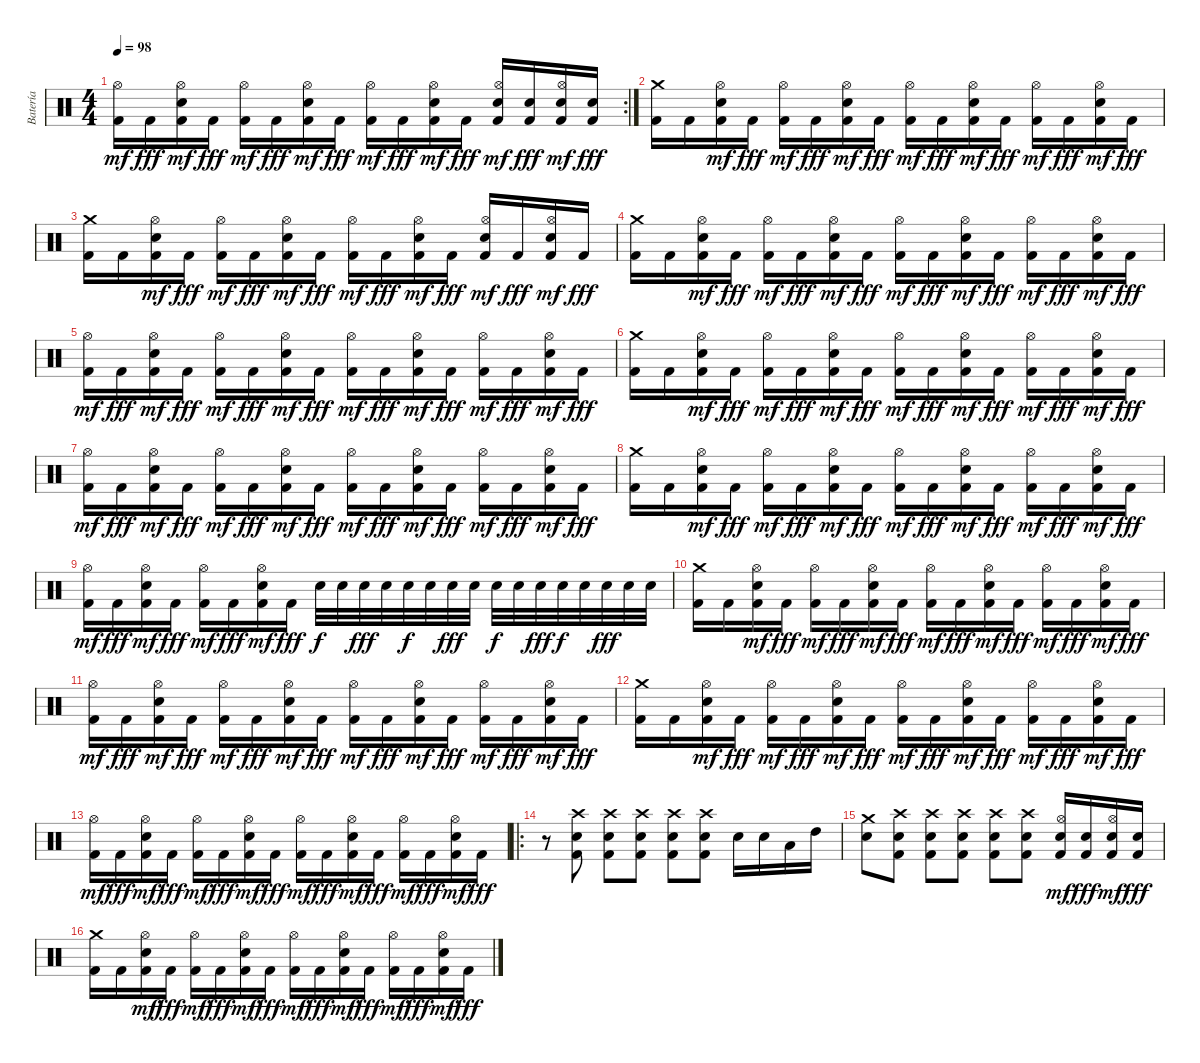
\track ("Batería" "Batería") {instrument percussion}
\staff {score}
\articulation defaults
\rc 2
\ts (4 4)
\tempo 98
\clef neutral
\ks c
("Kick (hit) 2" "Hi-Hat (open)").16{dy mf} "Kick (hit) 2".16{dy fff} ("Kick (hit) 2" "Electric Snare (hit)" "Hi-Hat (open)").16{dy mf} "Kick (hit) 2".16{dy fff} ("Kick (hit) 2" "Hi-Hat (open)").16{dy mf} "Kick (hit) 2".16{dy fff} ("Kick (hit) 2" "Electric Snare (hit)" "Hi-Hat (open)").16{dy mf} "Kick (hit) 2".16{dy fff} ("Kick (hit) 2" "Hi-Hat (open)").16{dy mf} "Kick (hit) 2".16{dy fff} ("Kick (hit) 2" "Electric Snare (hit)" "Hi-Hat (open)").16{dy mf} "Kick (hit) 2".16{dy fff} ("Kick (hit) 2" "Electric Snare (hit)" "Hi-Hat (open)").16{dy mf} ("Kick (hit) 2" "Electric Snare (hit)").16{dy fff} ("Kick (hit) 2" "Electric Snare (hit)" "Hi-Hat (open)").16{dy mf} ("Kick (hit) 2" "Electric Snare (hit)").16{dy fff} |
("Kick (hit) 2" "Crash medium (hit)").16 "Kick (hit) 2".16 ("Kick (hit) 2" "Electric Snare (hit)" "Hi-Hat (open)").16{dy mf} "Kick (hit) 2".16{dy fff} ("Kick (hit) 2" "Hi-Hat (open)").16{dy mf} "Kick (hit) 2".16{dy fff} ("Kick (hit) 2" "Electric Snare (hit)" "Hi-Hat (open)").16{dy mf} "Kick (hit) 2".16{dy fff} ("Kick (hit) 2" "Hi-Hat (open)").16{dy mf} "Kick (hit) 2".16{dy fff} ("Kick (hit) 2" "Electric Snare (hit)" "Hi-Hat (open)").16{dy mf} "Kick (hit) 2".16{dy fff} ("Kick (hit) 2" "Hi-Hat (open)").16{dy mf} "Kick (hit) 2".16{dy fff} ("Kick (hit) 2" "Electric Snare (hit)" "Hi-Hat (open)").16{dy mf} "Kick (hit) 2".16{dy fff} |
("Kick (hit) 2" "Crash medium (hit)").16 "Kick (hit) 2".16 ("Kick (hit) 2" "Electric Snare (hit)" "Hi-Hat (open)").16{dy mf} "Kick (hit) 2".16{dy fff} ("Kick (hit) 2" "Hi-Hat (open)").16{dy mf} "Kick (hit) 2".16{dy fff} ("Kick (hit) 2" "Electric Snare (hit)" "Hi-Hat (open)").16{dy mf} "Kick (hit) 2".16{dy fff} ("Kick (hit) 2" "Hi-Hat (open)").16{dy mf} "Kick (hit) 2".16{dy fff} ("Kick (hit) 2" "Electric Snare (hit)" "Hi-Hat (open)").16{dy mf} "Kick (hit) 2".16{dy fff} ("Kick (hit) 2" "Electric Snare (hit)" "Hi-Hat (open)").16{dy mf} "Kick (hit) 2".16{dy fff} ("Kick (hit) 2" "Electric Snare (hit)" "Hi-Hat (open)").16{dy mf} "Kick (hit) 2".16{dy fff} |
("Kick (hit) 2" "Crash medium (hit)").16 "Kick (hit) 2".16 ("Kick (hit) 2" "Electric Snare (hit)" "Hi-Hat (open)").16{dy mf} "Kick (hit) 2".16{dy fff} ("Kick (hit) 2" "Hi-Hat (open)").16{dy mf} "Kick (hit) 2".16{dy fff} ("Kick (hit) 2" "Electric Snare (hit)" "Hi-Hat (open)").16{dy mf} "Kick (hit) 2".16{dy fff} ("Kick (hit) 2" "Hi-Hat (open)").16{dy mf} "Kick (hit) 2".16{dy fff} ("Kick (hit) 2" "Electric Snare (hit)" "Hi-Hat (open)").16{dy mf} "Kick (hit) 2".16{dy fff} ("Kick (hit) 2" "Hi-Hat (open)").16{dy mf} "Kick (hit) 2".16{dy fff} ("Kick (hit) 2" "Electric Snare (hit)" "Hi-Hat (open)").16{dy mf} "Kick (hit) 2".16{dy fff} |
("Kick (hit) 2" "Hi-Hat (open)").16{dy mf} "Kick (hit) 2".16{dy fff} ("Kick (hit) 2" "Electric Snare (hit)" "Hi-Hat (open)").16{dy mf} "Kick (hit) 2".16{dy fff} ("Kick (hit) 2" "Hi-Hat (open)").16{dy mf} "Kick (hit) 2".16{dy fff} ("Kick (hit) 2" "Electric Snare (hit)" "Hi-Hat (open)").16{dy mf} "Kick (hit) 2".16{dy fff} ("Kick (hit) 2" "Hi-Hat (open)").16{dy mf} "Kick (hit) 2".16{dy fff} ("Kick (hit) 2" "Electric Snare (hit)" "Hi-Hat (open)").16{dy mf} "Kick (hit) 2".16{dy fff} ("Kick (hit) 2" "Hi-Hat (open)").16{dy mf} "Kick (hit) 2".16{dy fff} ("Kick (hit) 2" "Electric Snare (hit)" "Hi-Hat (open)").16{dy mf} "Kick (hit) 2".16{dy fff} |
("Kick (hit) 2" "Crash medium (hit)").16 "Kick (hit) 2".16 ("Kick (hit) 2" "Electric Snare (hit)" "Hi-Hat (open)").16{dy mf} "Kick (hit) 2".16{dy fff} ("Kick (hit) 2" "Hi-Hat (open)").16{dy mf} "Kick (hit) 2".16{dy fff} ("Kick (hit) 2" "Electric Snare (hit)" "Hi-Hat (open)").16{dy mf} "Kick (hit) 2".16{dy fff} ("Kick (hit) 2" "Hi-Hat (open)").16{dy mf} "Kick (hit) 2".16{dy fff} ("Kick (hit) 2" "Electric Snare (hit)" "Hi-Hat (open)").16{dy mf} "Kick (hit) 2".16{dy fff} ("Kick (hit) 2" "Hi-Hat (open)").16{dy mf} "Kick (hit) 2".16{dy fff} ("Kick (hit) 2" "Electric Snare (hit)" "Hi-Hat (open)").16{dy mf} "Kick (hit) 2".16{dy fff} |
("Kick (hit) 2" "Hi-Hat (open)").16{dy mf} "Kick (hit) 2".16{dy fff} ("Kick (hit) 2" "Electric Snare (hit)" "Hi-Hat (open)").16{dy mf} "Kick (hit) 2".16{dy fff} ("Kick (hit) 2" "Hi-Hat (open)").16{dy mf} "Kick (hit) 2".16{dy fff} ("Kick (hit) 2" "Electric Snare (hit)" "Hi-Hat (open)").16{dy mf} "Kick (hit) 2".16{dy fff} ("Kick (hit) 2" "Hi-Hat (open)").16{dy mf} "Kick (hit) 2".16{dy fff} ("Kick (hit) 2" "Electric Snare (hit)" "Hi-Hat (open)").16{dy mf} "Kick (hit) 2".16{dy fff} ("Kick (hit) 2" "Hi-Hat (open)").16{dy mf} "Kick (hit) 2".16{dy fff} ("Kick (hit) 2" "Electric Snare (hit)" "Hi-Hat (open)").16{dy mf} "Kick (hit) 2".16{dy fff} |
("Kick (hit) 2" "Crash medium (hit)").16 "Kick (hit) 2".16 ("Kick (hit) 2" "Electric Snare (hit)" "Hi-Hat (open)").16{dy mf} "Kick (hit) 2".16{dy fff} ("Kick (hit) 2" "Hi-Hat (open)").16{dy mf} "Kick (hit) 2".16{dy fff} ("Kick (hit) 2" "Electric Snare (hit)" "Hi-Hat (open)").16{dy mf} "Kick (hit) 2".16{dy fff} ("Kick (hit) 2" "Hi-Hat (open)").16{dy mf} "Kick (hit) 2".16{dy fff} ("Kick (hit) 2" "Electric Snare (hit)" "Hi-Hat (open)").16{dy mf} "Kick (hit) 2".16{dy fff} ("Kick (hit) 2" "Hi-Hat (open)").16{dy mf} "Kick (hit) 2".16{dy fff} ("Kick (hit) 2" "Electric Snare (hit)" "Hi-Hat (open)").16{dy mf} "Kick (hit) 2".16{dy fff} |
("Kick (hit) 2" "Hi-Hat (open)").16{dy mf} "Kick (hit) 2".16{dy fff} ("Kick (hit) 2" "Electric Snare (hit)" "Hi-Hat (open)").16{dy mf} "Kick (hit) 2".16{dy fff} ("Kick (hit) 2" "Hi-Hat (open)").16{dy mf} "Kick (hit) 2".16{dy fff} ("Kick (hit) 2" "Electric Snare (hit)" "Hi-Hat (open)").16{dy mf} "Kick (hit) 2".16{dy fff} "Electric Snare (hit)".32{dy f} "Electric Snare (hit)".32 "Electric Snare (hit)".32{dy fff} "Electric Snare (hit)".32 "Electric Snare (hit)".32{dy f} "Electric Snare (hit)".32 "Electric Snare (hit)".32{dy fff} "Electric Snare (hit)".32 "Electric Snare (hit)".32{dy f} "Electric Snare (hit)".32 "Electric Snare (hit)".32{dy fff} "Electric Snare (hit)".32{dy f} "Electric Snare (hit)".32 "Electric Snare (hit)".32{dy fff} "Electric Snare (hit)".32 "Electric Snare (hit)".32 |
("Kick (hit) 2" "Crash medium (hit)").16 "Kick (hit) 2".16 ("Kick (hit) 2" "Electric Snare (hit)" "Hi-Hat (open)").16{dy mf} "Kick (hit) 2".16{dy fff} ("Kick (hit) 2" "Hi-Hat (open)").16{dy mf} "Kick (hit) 2".16{dy fff} ("Kick (hit) 2" "Electric Snare (hit)" "Hi-Hat (open)").16{dy mf} "Kick (hit) 2".16{dy fff} ("Kick (hit) 2" "Hi-Hat (open)").16{dy mf} "Kick (hit) 2".16{dy fff} ("Kick (hit) 2" "Electric Snare (hit)" "Hi-Hat (open)").16{dy mf} "Kick (hit) 2".16{dy fff} ("Kick (hit) 2" "Hi-Hat (open)").16{dy mf} "Kick (hit) 2".16{dy fff} ("Kick (hit) 2" "Electric Snare (hit)" "Hi-Hat (open)").16{dy mf} "Kick (hit) 2".16{dy fff} |
("Kick (hit) 2" "Hi-Hat (open)").16{dy mf} "Kick (hit) 2".16{dy fff} ("Kick (hit) 2" "Electric Snare (hit)" "Hi-Hat (open)").16{dy mf} "Kick (hit) 2".16{dy fff} ("Kick (hit) 2" "Hi-Hat (open)").16{dy mf} "Kick (hit) 2".16{dy fff} ("Kick (hit) 2" "Electric Snare (hit)" "Hi-Hat (open)").16{dy mf} "Kick (hit) 2".16{dy fff} ("Kick (hit) 2" "Hi-Hat (open)").16{dy mf} "Kick (hit) 2".16{dy fff} ("Kick (hit) 2" "Electric Snare (hit)" "Hi-Hat (open)").16{dy mf} "Kick (hit) 2".16{dy fff} ("Kick (hit) 2" "Hi-Hat (open)").16{dy mf} "Kick (hit) 2".16{dy fff} ("Kick (hit) 2" "Electric Snare (hit)" "Hi-Hat (open)").16{dy mf} "Kick (hit) 2".16{dy fff} |
("Kick (hit) 2" "Crash medium (hit)").16 "Kick (hit) 2".16 ("Kick (hit) 2" "Electric Snare (hit)" "Hi-Hat (open)").16{dy mf} "Kick (hit) 2".16{dy fff} ("Kick (hit) 2" "Hi-Hat (open)").16{dy mf} "Kick (hit) 2".16{dy fff} ("Kick (hit) 2" "Electric Snare (hit)" "Hi-Hat (open)").16{dy mf} "Kick (hit) 2".16{dy fff} ("Kick (hit) 2" "Hi-Hat (open)").16{dy mf} "Kick (hit) 2".16{dy fff} ("Kick (hit) 2" "Electric Snare (hit)" "Hi-Hat (open)").16{dy mf} "Kick (hit) 2".16{dy fff} ("Kick (hit) 2" "Hi-Hat (open)").16{dy mf} "Kick (hit) 2".16{dy fff} ("Kick (hit) 2" "Electric Snare (hit)" "Hi-Hat (open)").16{dy mf} "Kick (hit) 2".16{dy fff} |
("Kick (hit) 2" "Hi-Hat (open)").16{dy mf} "Kick (hit) 2".16{dy fff} ("Kick (hit) 2" "Electric Snare (hit)" "Hi-Hat (open)").16{dy mf} "Kick (hit) 2".16{dy fff} ("Kick (hit) 2" "Hi-Hat (open)").16{dy mf} "Kick (hit) 2".16{dy fff} ("Kick (hit) 2" "Electric Snare (hit)" "Hi-Hat (open)").16{dy mf} "Kick (hit) 2".16{dy fff} ("Kick (hit) 2" "Hi-Hat (open)").16{dy mf} "Kick (hit) 2".16{dy fff} ("Kick (hit) 2" "Electric Snare (hit)" "Hi-Hat (open)").16{dy mf} "Kick (hit) 2".16{dy fff} ("Kick (hit) 2" "Hi-Hat (open)").16{dy mf} "Kick (hit) 2".16{dy fff} ("Kick (hit) 2" "Electric Snare (hit)" "Hi-Hat (open)").16{dy mf} "Kick (hit) 2".16{dy fff} |
\ro
r.8 ("Kick (hit) 2" "Electric Snare (hit)" "Crash high (hit)").8 ("Kick (hit) 2" "Electric Snare (hit)" "Crash high (hit)").8 ("Kick (hit) 2" "Electric Snare (hit)" "Crash high (hit)").8 ("Kick (hit) 2" "Electric Snare (hit)" "Crash high (hit)").8 ("Kick (hit) 2" "Electric Snare (hit)" "Crash high (hit)").8 "Electric Snare (hit)".16 "Electric Snare (hit)".16 "Low Tom (hit)".16 "High Tom (hit)".16 |
("Electric Snare (hit)" "Crash medium (hit)").8 ("Kick (hit) 2" "Electric Snare (hit)" "Crash high (hit)").8 ("Kick (hit) 2" "Electric Snare (hit)" "Crash high (hit)").8 ("Kick (hit) 2" "Electric Snare (hit)" "Crash high (hit)").8 ("Kick (hit) 2" "Electric Snare (hit)" "Crash high (hit)").8 ("Kick (hit) 2" "Electric Snare (hit)" "Crash high (hit)").8 ("Kick (hit) 2" "Electric Snare (hit)" "Hi-Hat (open)").16{dy mf} ("Kick (hit) 2" "Electric Snare (hit)").16{dy fff} ("Kick (hit) 2" "Electric Snare (hit)" "Hi-Hat (open)").16{dy mf} ("Kick (hit) 2" "Electric Snare (hit)").16{dy fff} |
("Kick (hit) 2" "Crash medium (hit)").16 "Kick (hit) 2".16 ("Kick (hit) 2" "Electric Snare (hit)" "Hi-Hat (open)").16{dy mf} "Kick (hit) 2".16{dy fff} ("Kick (hit) 2" "Hi-Hat (open)").16{dy mf} "Kick (hit) 2".16{dy fff} ("Kick (hit) 2" "Electric Snare (hit)" "Hi-Hat (open)").16{dy mf} "Kick (hit) 2".16{dy fff} ("Kick (hit) 2" "Hi-Hat (open)").16{dy mf} "Kick (hit) 2".16{dy fff} ("Kick (hit) 2" "Electric Snare (hit)" "Hi-Hat (open)").16{dy mf} "Kick (hit) 2".16{dy fff} ("Kick (hit) 2" "Hi-Hat (open)").16{dy mf} "Kick (hit) 2".16{dy fff} ("Kick (hit) 2" "Electric Snare (hit)" "Hi-Hat (open)").16{dy mf} "Kick (hit) 2".16{dy fff}
